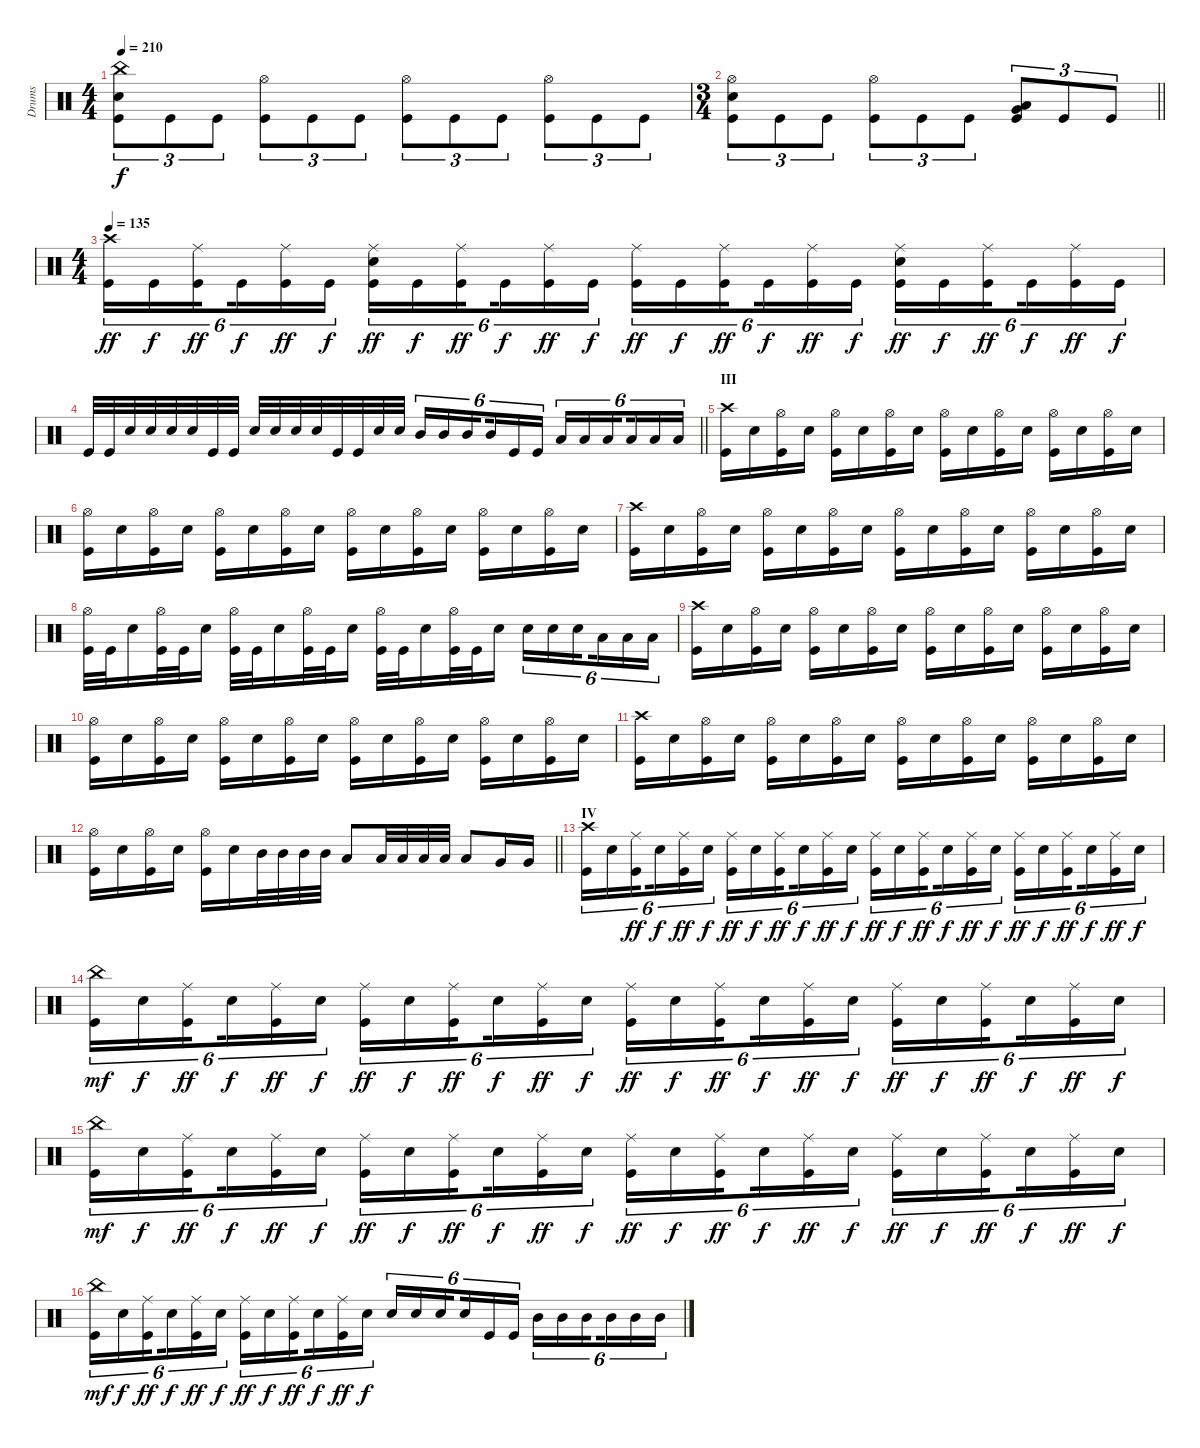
\track ("Drums" "Drums") {instrument percussion}
\staff {score}
\articulation defaults
\ts (4 4)
\tempo 210
\clef neutral
\ks c
("Kick (hit)" "Electric Snare (hit)" "China (hit)").8{tu (3 2) dy f} "Kick (hit)".8{tu (3 2)} "Kick (hit)".8{tu (3 2)} ("Kick (hit)" "Hi-Hat (open)").8{tu (3 2)} "Kick (hit)".8{tu (3 2)} "Kick (hit)".8{tu (3 2)} ("Kick (hit)" "Hi-Hat (open)").8{tu (3 2)} "Kick (hit)".8{tu (3 2)} "Kick (hit)".8{tu (3 2)} ("Kick (hit)" "Hi-Hat (open)").8{tu (3 2)} "Kick (hit)".8{tu (3 2)} "Kick (hit)".8{tu (3 2)} |
\ts (3 4)
\barLineRight lightlight
("Kick (hit)" "Electric Snare (hit)" "Hi-Hat (open)").8{tu (3 2)} "Kick (hit)".8{tu (3 2)} "Kick (hit)".8{tu (3 2)} ("Kick (hit)" "Hi-Hat (open)").8{tu (3 2)} "Kick (hit)".8{tu (3 2)} "Kick (hit)".8{tu (3 2)} ("Kick (hit)" "Very Low Tom (hit)" "Low Tom (hit)").8{tu (3 2)} "Kick (hit)".8{tu (3 2)} "Kick (hit)".8{tu (3 2)} |
\ts (4 4)
\tempo 135
("Kick (hit)" "Crash high (hit)").16{tu (6 4) dy ff} "Kick (hit)".16{tu (6 4) dy f} ("Kick (hit)" "Ride (middle)").16{tu (6 4) dy ff beam splitsecondary} "Kick (hit)".16{tu (6 4) dy f} ("Kick (hit)" "Ride (middle)").16{tu (6 4) dy ff} "Kick (hit)".16{tu (6 4) dy f} ("Kick (hit)" "Electric Snare (hit)" "Ride (middle)").16{tu (6 4) dy ff} "Kick (hit)".16{tu (6 4) dy f} ("Kick (hit)" "Ride (middle)").16{tu (6 4) dy ff beam splitsecondary} "Kick (hit)".16{tu (6 4) dy f} ("Kick (hit)" "Ride (middle)").16{tu (6 4) dy ff} "Kick (hit)".16{tu (6 4) dy f} ("Kick (hit)" "Ride (middle)").16{tu (6 4) dy ff} "Kick (hit)".16{tu (6 4) dy f} ("Kick (hit)" "Ride (middle)").16{tu (6 4) dy ff beam splitsecondary} "Kick (hit)".16{tu (6 4) dy f} ("Kick (hit)" "Ride (middle)").16{tu (6 4) dy ff} "Kick (hit)".16{tu (6 4) dy f} ("Kick (hit)" "Electric Snare (hit)" "Ride (middle)").16{tu (6 4) dy ff} "Kick (hit)".16{tu (6 4) dy f} ("Kick (hit)" "Ride (middle)").16{tu (6 4) dy ff beam splitsecondary} "Kick (hit)".16{tu (6 4) dy f} ("Kick (hit)" "Ride (middle)").16{tu (6 4) dy ff} "Kick (hit)".16{tu (6 4) dy f} |
\barLineRight lightlight "Kick (hit)".32 "Kick (hit)".32 "Electric Snare (hit)".32 "Electric Snare (hit)".32 "Electric Snare (hit)".32 "Electric Snare (hit)".32 "Kick (hit)".32 "Kick (hit)".32 "Electric Snare (hit)".32 "Electric Snare (hit)".32 "Electric Snare (hit)".32 "Electric Snare (hit)".32 "Kick (hit)".32 "Kick (hit)".32 "Electric Snare (hit)".32 "Electric Snare (hit)".32 "Mid Tom (hit)".16{tu (6 4)} "Mid Tom (hit)".16{tu (6 4)} "Mid Tom (hit)".16{tu (6 4) beam splitsecondary} "Mid Tom (hit)".16{tu (6 4)} "Kick (hit)".16{tu (6 4)} "Kick (hit)".16{tu (6 4)} "Low Tom (hit)".16{tu (6 4)} "Low Tom (hit)".16{tu (6 4)} "Low Tom (hit)".16{tu (6 4) beam splitsecondary} "Low Tom (hit)".16{tu (6 4)} "Low Tom (hit)".16{tu (6 4)} "Low Tom (hit)".16{tu (6 4)}
|
\section ("" "III")
("Kick (hit)" "Crash high (hit)").16 "Electric Snare (hit)".16 ("Kick (hit)" "Hi-Hat (open)").16 "Electric Snare (hit)".16 ("Kick (hit)" "Hi-Hat (open)").16 "Electric Snare (hit)".16 ("Kick (hit)" "Hi-Hat (open)").16 "Electric Snare (hit)".16 ("Kick (hit)" "Hi-Hat (open)").16 "Electric Snare (hit)".16 ("Kick (hit)" "Hi-Hat (open)").16 "Electric Snare (hit)".16 ("Kick (hit)" "Hi-Hat (open)").16 "Electric Snare (hit)".16 ("Kick (hit)" "Hi-Hat (open)").16 "Electric Snare (hit)".16 |
("Kick (hit)" "Hi-Hat (open)").16 "Electric Snare (hit)".16 ("Kick (hit)" "Hi-Hat (open)").16 "Electric Snare (hit)".16 ("Kick (hit)" "Hi-Hat (open)").16 "Electric Snare (hit)".16 ("Kick (hit)" "Hi-Hat (open)").16 "Electric Snare (hit)".16 ("Kick (hit)" "Hi-Hat (open)").16 "Electric Snare (hit)".16 ("Kick (hit)" "Hi-Hat (open)").16 "Electric Snare (hit)".16 ("Kick (hit)" "Hi-Hat (open)").16 "Electric Snare (hit)".16 ("Kick (hit)" "Hi-Hat (open)").16 "Electric Snare (hit)".16 |
("Kick (hit)" "Crash high (hit)").16 "Electric Snare (hit)".16 ("Kick (hit)" "Hi-Hat (open)").16 "Electric Snare (hit)".16 ("Kick (hit)" "Hi-Hat (open)").16 "Electric Snare (hit)".16 ("Kick (hit)" "Hi-Hat (open)").16 "Electric Snare (hit)".16 ("Kick (hit)" "Hi-Hat (open)").16 "Electric Snare (hit)".16 ("Kick (hit)" "Hi-Hat (open)").16 "Electric Snare (hit)".16 ("Kick (hit)" "Hi-Hat (open)").16 "Electric Snare (hit)".16 ("Kick (hit)" "Hi-Hat (open)").16 "Electric Snare (hit)".16 |
("Kick (hit)" "Hi-Hat (open)").32 "Kick (hit)".32 "Electric Snare (hit)".16 ("Kick (hit)" "Hi-Hat (open)").32 "Kick (hit)".32 "Electric Snare (hit)".16 ("Kick (hit)" "Hi-Hat (open)").32 "Kick (hit)".32 "Electric Snare (hit)".16 ("Kick (hit)" "Hi-Hat (open)").32 "Kick (hit)".32 "Electric Snare (hit)".16 ("Kick (hit)" "Hi-Hat (open)").32 "Kick (hit)".32 "Electric Snare (hit)".16 ("Kick (hit)" "Hi-Hat (open)").32 "Kick (hit)".32 "Electric Snare (hit)".16 "Electric Snare (hit)".16{tu (6 4)} "Electric Snare (hit)".16{tu (6 4)} "Electric Snare (hit)".16{tu (6 4) beam splitsecondary} "Low Tom (hit)".16{tu (6 4)} "Low Tom (hit)".16{tu (6 4)} "Low Tom (hit)".16{tu (6 4)} |
("Kick (hit)" "Crash high (hit)").16 "Electric Snare (hit)".16 ("Kick (hit)" "Hi-Hat (open)").16 "Electric Snare (hit)".16 ("Kick (hit)" "Hi-Hat (open)").16 "Electric Snare (hit)".16 ("Kick (hit)" "Hi-Hat (open)").16 "Electric Snare (hit)".16 ("Kick (hit)" "Hi-Hat (open)").16 "Electric Snare (hit)".16 ("Kick (hit)" "Hi-Hat (open)").16 "Electric Snare (hit)".16 ("Kick (hit)" "Hi-Hat (open)").16 "Electric Snare (hit)".16 ("Kick (hit)" "Hi-Hat (open)").16 "Electric Snare (hit)".16 |
("Kick (hit)" "Hi-Hat (open)").16 "Electric Snare (hit)".16 ("Kick (hit)" "Hi-Hat (open)").16 "Electric Snare (hit)".16 ("Kick (hit)" "Hi-Hat (open)").16 "Electric Snare (hit)".16 ("Kick (hit)" "Hi-Hat (open)").16 "Electric Snare (hit)".16 ("Kick (hit)" "Hi-Hat (open)").16 "Electric Snare (hit)".16 ("Kick (hit)" "Hi-Hat (open)").16 "Electric Snare (hit)".16 ("Kick (hit)" "Hi-Hat (open)").16 "Electric Snare (hit)".16 ("Kick (hit)" "Hi-Hat (open)").16 "Electric Snare (hit)".16 |
("Kick (hit)" "Crash high (hit)").16 "Electric Snare (hit)".16 ("Kick (hit)" "Hi-Hat (open)").16 "Electric Snare (hit)".16 ("Kick (hit)" "Hi-Hat (open)").16 "Electric Snare (hit)".16 ("Kick (hit)" "Hi-Hat (open)").16 "Electric Snare (hit)".16 ("Kick (hit)" "Hi-Hat (open)").16 "Electric Snare (hit)".16 ("Kick (hit)" "Hi-Hat (open)").16 "Electric Snare (hit)".16 ("Kick (hit)" "Hi-Hat (open)").16 "Electric Snare (hit)".16 ("Kick (hit)" "Hi-Hat (open)").16 "Electric Snare (hit)".16 |
\barLineRight lightlight
("Kick (hit)" "Hi-Hat (open)").16 "Electric Snare (hit)".16 ("Kick (hit)" "Hi-Hat (open)").16 "Electric Snare (hit)".16 ("Kick (hit)" "Hi-Hat (open)").16 "Electric Snare (hit)".16 "Mid Tom (hit)".32 "Mid Tom (hit)".32 "Mid Tom (hit)".32 "Mid Tom (hit)".32 "Low Tom (hit)".8 "Low Tom (hit)".32 "Low Tom (hit)".32 "Low Tom (hit)".32 "Low Tom (hit)".32 "Low Tom (hit)".8 "Very Low Tom (hit)".16 "Very Low Tom (hit)".16 |
\section ("" "IV")
("Kick (hit)" "Crash high (hit)").16{tu (6 4)} "Electric Snare (hit)".16{tu (6 4)} ("Kick (hit)" "Ride (middle)").16{tu (6 4) dy ff beam splitsecondary} "Electric Snare (hit)".16{tu (6 4) dy f} ("Kick (hit)" "Ride (middle)").16{tu (6 4) dy ff} "Electric Snare (hit)".16{tu (6 4) dy f} ("Kick (hit)" "Ride (middle)").16{tu (6 4) dy ff} "Electric Snare (hit)".16{tu (6 4) dy f} ("Kick (hit)" "Ride (middle)").16{tu (6 4) dy ff beam splitsecondary} "Electric Snare (hit)".16{tu (6 4) dy f} ("Kick (hit)" "Ride (middle)").16{tu (6 4) dy ff} "Electric Snare (hit)".16{tu (6 4) dy f} ("Kick (hit)" "Ride (middle)").16{tu (6 4) dy ff} "Electric Snare (hit)".16{tu (6 4) dy f} ("Kick (hit)" "Ride (middle)").16{tu (6 4) dy ff beam splitsecondary} "Electric Snare (hit)".16{tu (6 4) dy f} ("Kick (hit)" "Ride (middle)").16{tu (6 4) dy ff} "Electric Snare (hit)".16{tu (6 4) dy f} ("Kick (hit)" "Ride (middle)").16{tu (6 4) dy ff} "Electric Snare (hit)".16{tu (6 4) dy f} ("Kick (hit)" "Ride (middle)").16{tu (6 4) dy ff beam splitsecondary} "Electric Snare (hit)".16{tu (6 4) dy f} ("Kick (hit)" "Ride (middle)").16{tu (6 4) dy ff} "Electric Snare (hit)".16{tu (6 4) dy f} |
("Kick (hit)" "China (hit)").16{tu (6 4) dy mf} "Electric Snare (hit)".16{tu (6 4) dy f} ("Kick (hit)" "Ride (middle)").16{tu (6 4) dy ff beam splitsecondary} "Electric Snare (hit)".16{tu (6 4) dy f} ("Kick (hit)" "Ride (middle)").16{tu (6 4) dy ff} "Electric Snare (hit)".16{tu (6 4) dy f} ("Kick (hit)" "Ride (middle)").16{tu (6 4) dy ff} "Electric Snare (hit)".16{tu (6 4) dy f} ("Kick (hit)" "Ride (middle)").16{tu (6 4) dy ff beam splitsecondary} "Electric Snare (hit)".16{tu (6 4) dy f} ("Kick (hit)" "Ride (middle)").16{tu (6 4) dy ff} "Electric Snare (hit)".16{tu (6 4) dy f} ("Kick (hit)" "Ride (middle)").16{tu (6 4) dy ff} "Electric Snare (hit)".16{tu (6 4) dy f} ("Kick (hit)" "Ride (middle)").16{tu (6 4) dy ff beam splitsecondary} "Electric Snare (hit)".16{tu (6 4) dy f} ("Kick (hit)" "Ride (middle)").16{tu (6 4) dy ff} "Electric Snare (hit)".16{tu (6 4) dy f} ("Kick (hit)" "Ride (middle)").16{tu (6 4) dy ff} "Electric Snare (hit)".16{tu (6 4) dy f} ("Kick (hit)" "Ride (middle)").16{tu (6 4) dy ff beam splitsecondary} "Electric Snare (hit)".16{tu (6 4) dy f} ("Kick (hit)" "Ride (middle)").16{tu (6 4) dy ff} "Electric Snare (hit)".16{tu (6 4) dy f} |
("Kick (hit)" "China (hit)").16{tu (6 4) dy mf} "Electric Snare (hit)".16{tu (6 4) dy f} ("Kick (hit)" "Ride (middle)").16{tu (6 4) dy ff beam splitsecondary} "Electric Snare (hit)".16{tu (6 4) dy f} ("Kick (hit)" "Ride (middle)").16{tu (6 4) dy ff} "Electric Snare (hit)".16{tu (6 4) dy f} ("Kick (hit)" "Ride (middle)").16{tu (6 4) dy ff} "Electric Snare (hit)".16{tu (6 4) dy f} ("Kick (hit)" "Ride (middle)").16{tu (6 4) dy ff beam splitsecondary} "Electric Snare (hit)".16{tu (6 4) dy f} ("Kick (hit)" "Ride (middle)").16{tu (6 4) dy ff} "Electric Snare (hit)".16{tu (6 4) dy f} ("Kick (hit)" "Ride (middle)").16{tu (6 4) dy ff} "Electric Snare (hit)".16{tu (6 4) dy f} ("Kick (hit)" "Ride (middle)").16{tu (6 4) dy ff beam splitsecondary} "Electric Snare (hit)".16{tu (6 4) dy f} ("Kick (hit)" "Ride (middle)").16{tu (6 4) dy ff} "Electric Snare (hit)".16{tu (6 4) dy f} ("Kick (hit)" "Ride (middle)").16{tu (6 4) dy ff} "Electric Snare (hit)".16{tu (6 4) dy f} ("Kick (hit)" "Ride (middle)").16{tu (6 4) dy ff beam splitsecondary} "Electric Snare (hit)".16{tu (6 4) dy f} ("Kick (hit)" "Ride (middle)").16{tu (6 4) dy ff} "Electric Snare (hit)".16{tu (6 4) dy f} |
("Kick (hit)" "China (hit)").16{tu (6 4) dy mf} "Electric Snare (hit)".16{tu (6 4) dy f} ("Kick (hit)" "Ride (middle)").16{tu (6 4) dy ff beam splitsecondary} "Electric Snare (hit)".16{tu (6 4) dy f} ("Kick (hit)" "Ride (middle)").16{tu (6 4) dy ff} "Electric Snare (hit)".16{tu (6 4) dy f} ("Kick (hit)" "Ride (middle)").16{tu (6 4) dy ff} "Electric Snare (hit)".16{tu (6 4) dy f} ("Kick (hit)" "Ride (middle)").16{tu (6 4) dy ff beam splitsecondary} "Electric Snare (hit)".16{tu (6 4) dy f} ("Kick (hit)" "Ride (middle)").16{tu (6 4) dy ff} "Electric Snare (hit)".16{tu (6 4) dy f} "Electric Snare (hit)".16{tu (6 4)} "Electric Snare (hit)".16{tu (6 4)} "Electric Snare (hit)".16{tu (6 4) beam splitsecondary} "Electric Snare (hit)".16{tu (6 4)} "Kick (hit)".16{tu (6 4)} "Kick (hit)".16{tu (6 4)} "Mid Tom (hit)".16{tu (6 4)} "Mid Tom (hit)".16{tu (6 4)} "Mid Tom (hit)".16{tu (6 4) beam splitsecondary} "Mid Tom (hit)".16{tu (6 4)} "Mid Tom (hit)".16{tu (6 4)} "Mid Tom (hit)".16{tu (6 4)}
